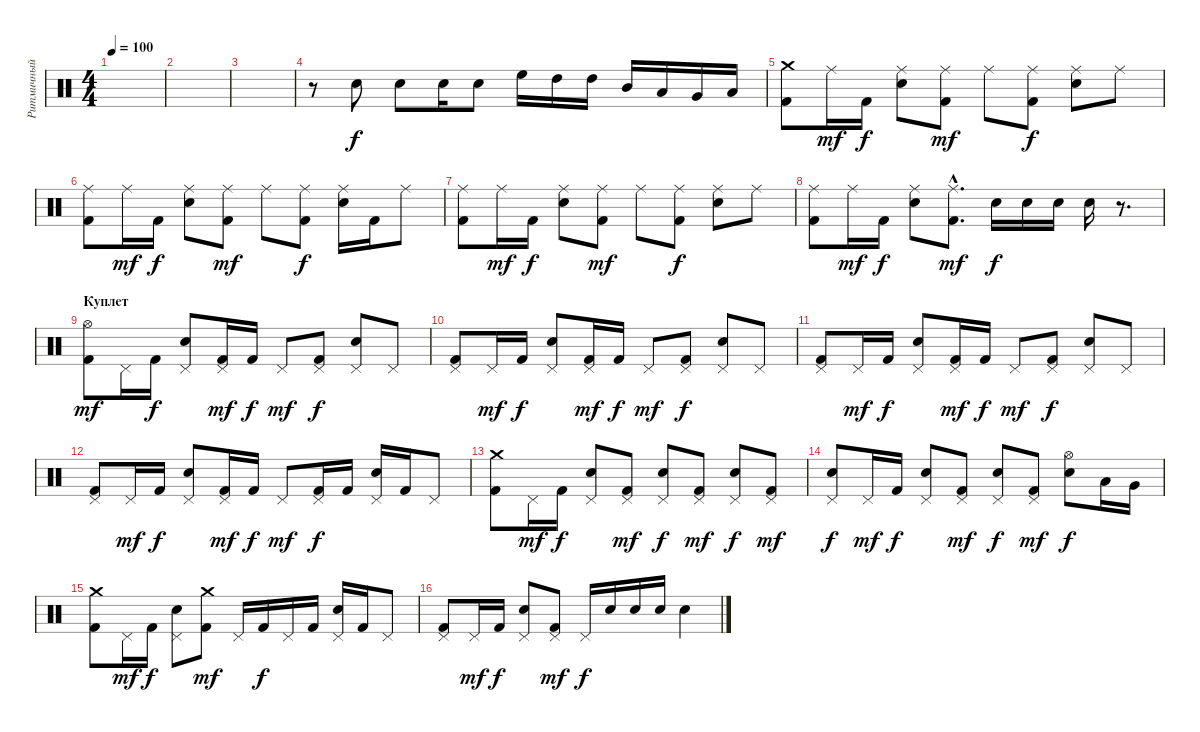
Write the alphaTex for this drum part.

\track ("Ритмичный Вова" "Ритмичный ") {instrument percussion}
\staff {score}
\articulation defaults
\ts (4 4)
\tempo 100
\clef neutral
\ks c
|
|
|
r.8 "Electric Snare (hit)".8 "Electric Snare (hit)".8 "Electric Snare (hit)".16 "Electric Snare (hit)".8 "High Floor Tom (hit)".16 "High Tom (hit)".16 "High Tom (hit)".16 "Mid Tom (hit)".16 "Low Tom (hit)".16 "Very Low Tom (hit)".16 "Low Floor Tom (hit)".16 |
("Crash medium (hit)" "Kick (hit) 2").8 "Ride (middle)".16{dy mf} "Kick (hit) 2".16{dy f} ("Ride (middle)" "Electric Snare (hit)").8 ("Ride (middle)" "Kick (hit) 2").8{dy mf} "Ride (middle)".8 ("Ride (middle)" "Kick (hit) 2").8{dy f} ("Ride (middle)" "Electric Snare (hit)").8 "Ride (middle)".8 |
("Ride (middle)" "Kick (hit) 2").8 "Ride (middle)".16{dy mf} "Kick (hit) 2".16{dy f} ("Ride (middle)" "Electric Snare (hit)").8 ("Ride (middle)" "Kick (hit) 2").8{dy mf} "Ride (middle)".8 ("Ride (middle)" "Kick (hit) 2").8{dy f} ("Ride (middle)" "Electric Snare (hit)").16 "Kick (hit) 2".16 "Ride (middle)".8 |
("Ride (middle)" "Kick (hit) 2").8 "Ride (middle)".16{dy mf} "Kick (hit) 2".16{dy f} ("Ride (middle)" "Electric Snare (hit)").8 ("Ride (middle)" "Kick (hit) 2").8{dy mf} "Ride (middle)".8 ("Ride (middle)" "Kick (hit) 2").8{dy f} ("Ride (middle)" "Electric Snare (hit)").8 "Ride (middle)".8 |
("Ride (middle)" "Kick (hit) 2").8 "Ride (middle)".16{dy mf} "Kick (hit) 2".16{dy f} ("Ride (middle)" "Electric Snare (hit)").8 ("Ride (middle)"{hac} "Kick (hit) 2"{hac}).8{d dy mf} "Electric Snare (hit)".16{dy f} "Electric Snare (hit)".16 "Electric Snare (hit)".16 "Electric Snare (hit)".16 r.8{d} |
\section ("" "Куплет")
("Hi-Hat (open)" "Kick (hit) 2").8{dy mf} "Pedal Hi-Hat (hit)".16 "Kick (hit) 2".16{dy f} ("Pedal Hi-Hat (hit)" "Electric Snare (hit)").8 ("Pedal Hi-Hat (hit)" "Kick (hit) 2").16{dy mf} "Kick (hit) 2".16{dy f} "Pedal Hi-Hat (hit)".8{dy mf} ("Pedal Hi-Hat (hit)" "Kick (hit) 2").8{dy f} ("Pedal Hi-Hat (hit)" "Electric Snare (hit)").8 "Pedal Hi-Hat (hit)".8 |
("Pedal Hi-Hat (hit)" "Kick (hit) 2").8 "Pedal Hi-Hat (hit)".16{dy mf} "Kick (hit) 2".16{dy f} ("Pedal Hi-Hat (hit)" "Electric Snare (hit)").8 ("Pedal Hi-Hat (hit)" "Kick (hit) 2").16{dy mf} "Kick (hit) 2".16{dy f} "Pedal Hi-Hat (hit)".8{dy mf} ("Pedal Hi-Hat (hit)" "Kick (hit) 2").8{dy f} ("Pedal Hi-Hat (hit)" "Electric Snare (hit)").8 "Pedal Hi-Hat (hit)".8 |
("Pedal Hi-Hat (hit)" "Kick (hit) 2").8 "Pedal Hi-Hat (hit)".16{dy mf} "Kick (hit) 2".16{dy f} ("Pedal Hi-Hat (hit)" "Electric Snare (hit)").8 ("Pedal Hi-Hat (hit)" "Kick (hit) 2").16{dy mf} "Kick (hit) 2".16{dy f} "Pedal Hi-Hat (hit)".8{dy mf} ("Pedal Hi-Hat (hit)" "Kick (hit) 2").8{dy f} ("Pedal Hi-Hat (hit)" "Electric Snare (hit)").8 "Pedal Hi-Hat (hit)".8 |
("Pedal Hi-Hat (hit)" "Kick (hit) 2").8 "Pedal Hi-Hat (hit)".16{dy mf} "Kick (hit) 2".16{dy f} ("Pedal Hi-Hat (hit)" "Electric Snare (hit)").8 ("Pedal Hi-Hat (hit)" "Kick (hit) 2").16{dy mf} "Kick (hit) 2".16{dy f} "Pedal Hi-Hat (hit)".8{dy mf} ("Pedal Hi-Hat (hit)" "Kick (hit) 2").16{dy f} "Kick (hit) 2".16 ("Pedal Hi-Hat (hit)" "Electric Snare (hit)").16 "Kick (hit) 2".16 "Pedal Hi-Hat (hit)".8 |
("Crash medium (hit)" "Kick (hit) 2").8 "Pedal Hi-Hat (hit)".16{dy mf} "Kick (hit) 2".16{dy f} ("Pedal Hi-Hat (hit)" "Electric Snare (hit)").8 ("Pedal Hi-Hat (hit)" "Kick (hit) 2").8{dy mf} ("Pedal Hi-Hat (hit)" "Electric Snare (hit)").8{dy f} ("Pedal Hi-Hat (hit)" "Kick (hit) 2").8{dy mf} ("Pedal Hi-Hat (hit)" "Electric Snare (hit)").8{dy f} ("Pedal Hi-Hat (hit)" "Kick (hit) 2").8{dy mf} |
("Pedal Hi-Hat (hit)" "Electric Snare (hit)").8{dy f} "Pedal Hi-Hat (hit)".16{dy mf} "Kick (hit) 2".16{dy f} ("Pedal Hi-Hat (hit)" "Electric Snare (hit)").8 ("Pedal Hi-Hat (hit)" "Kick (hit) 2").8{dy mf} ("Pedal Hi-Hat (hit)" "Electric Snare (hit)").8{dy f} ("Pedal Hi-Hat (hit)" "Kick (hit) 2").8{dy mf} ("Hi-Hat (open)" "Electric Snare (hit)").8{dy f} "Low Tom (hit)".16 "Very Low Tom (hit)".16 |
("Crash medium (hit)" "Kick (hit) 2").8 "Pedal Hi-Hat (hit)".16{dy mf} "Kick (hit) 2".16{dy f} ("Pedal Hi-Hat (hit)" "Electric Snare (hit)").8 ("Crash medium (hit)" "Kick (hit) 2").8{dy mf} "Pedal Hi-Hat (hit)".16 "Kick (hit) 2".16{dy f} "Pedal Hi-Hat (hit)".16 "Kick (hit) 2".16 ("Pedal Hi-Hat (hit)" "Electric Snare (hit)").16 "Kick (hit) 2".16 "Pedal Hi-Hat (hit)".8 |
("Pedal Hi-Hat (hit)" "Kick (hit) 2").8 "Pedal Hi-Hat (hit)".16{dy mf} "Kick (hit) 2".16{dy f} ("Pedal Hi-Hat (hit)" "Electric Snare (hit)").8 ("Pedal Hi-Hat (hit)" "Kick (hit) 2").8{dy mf} "Pedal Hi-Hat (hit)".16{dy f} "Electric Snare (hit)".16 "Electric Snare (hit)".16 "Electric Snare (hit)".16 "Electric Snare (hit)".4
